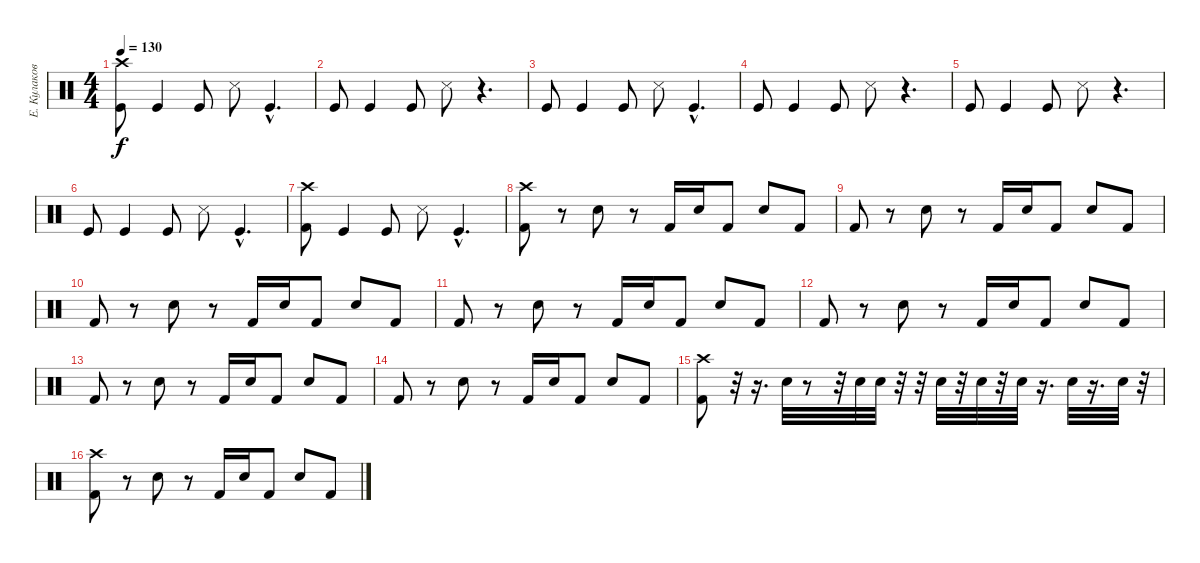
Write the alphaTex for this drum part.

\track ("Е. Кулаков" "Е. Кулаков") {instrument percussion}
\staff {score}
\articulation defaults
\ts (4 4)
\tempo 130
\clef neutral
\ks c
("Crash high (hit)" "Kick (hit)").8{dy f} "Kick (hit)".4 "Kick (hit)".8 "Snare (side stick) 3".8 "Kick (hit)"{hac}.4{d} |
"Kick (hit)".8 "Kick (hit)".4 "Kick (hit)".8 "Snare (side stick) 3".8 r.4{d} |
"Kick (hit)".8 "Kick (hit)".4 "Kick (hit)".8 "Snare (side stick) 3".8 "Kick (hit)"{hac}.4{d} |
"Kick (hit)".8 "Kick (hit)".4 "Kick (hit)".8 "Snare (side stick) 3".8 r.4{d} |
"Kick (hit)".8 "Kick (hit)".4 "Kick (hit)".8 "Snare (side stick) 3".8 r.4{d} |
"Kick (hit)".8 "Kick (hit)".4 "Kick (hit)".8 "Snare (side stick) 3".8 "Kick (hit)"{hac}.4{d} |
("Crash high (hit)" "Kick (hit) 2").8 "Kick (hit)".4 "Kick (hit)".8 "Snare (side stick) 3".8 "Kick (hit)"{hac}.4{d} |
("Crash high (hit)" "Kick (hit) 2").8 r.8 "Electric Snare (hit)".8 r.8 "Kick (hit) 2".16 "Electric Snare (hit)".16 "Kick (hit) 2".8 "Electric Snare (hit)".8 "Kick (hit) 2".8 |
"Kick (hit) 2".8 r.8 "Electric Snare (hit)".8 r.8 "Kick (hit) 2".16 "Electric Snare (hit)".16 "Kick (hit) 2".8 "Electric Snare (hit)".8 "Kick (hit) 2".8 |
"Kick (hit) 2".8 r.8 "Electric Snare (hit)".8 r.8 "Kick (hit) 2".16 "Electric Snare (hit)".16 "Kick (hit) 2".8 "Electric Snare (hit)".8 "Kick (hit) 2".8 |
"Kick (hit) 2".8 r.8 "Electric Snare (hit)".8 r.8 "Kick (hit) 2".16 "Electric Snare (hit)".16 "Kick (hit) 2".8 "Electric Snare (hit)".8 "Kick (hit) 2".8 |
"Kick (hit) 2".8 r.8 "Electric Snare (hit)".8 r.8 "Kick (hit) 2".16 "Electric Snare (hit)".16 "Kick (hit) 2".8 "Electric Snare (hit)".8 "Kick (hit) 2".8 |
"Kick (hit) 2".8 r.8 "Electric Snare (hit)".8 r.8 "Kick (hit) 2".16 "Electric Snare (hit)".16 "Kick (hit) 2".8 "Electric Snare (hit)".8 "Kick (hit) 2".8 |
"Kick (hit) 2".8 r.8 "Electric Snare (hit)".8 r.8 "Kick (hit) 2".16 "Electric Snare (hit)".16 "Kick (hit) 2".8 "Electric Snare (hit)".8 "Kick (hit) 2".8 |
("Kick (hit) 2" "Crash high (hit)").8 r.32 r.16{d} "Electric Snare (hit)".32 r.8 r.32 "Electric Snare (hit)".32 "Electric Snare (hit)".32 r.32 r.32 "Electric Snare (hit)".32 r.32 "Electric Snare (hit)".32 r.32 "Electric Snare (hit)".32 r.16{d} "Electric Snare (hit)".32 r.16{d} "Electric Snare (hit)".32 r.32 |
("Crash high (hit)" "Kick (hit) 2").8 r.8 "Electric Snare (hit)".8 r.8 "Kick (hit) 2".16 "Electric Snare (hit)".16 "Kick (hit) 2".8 "Electric Snare (hit)".8 "Kick (hit) 2".8
